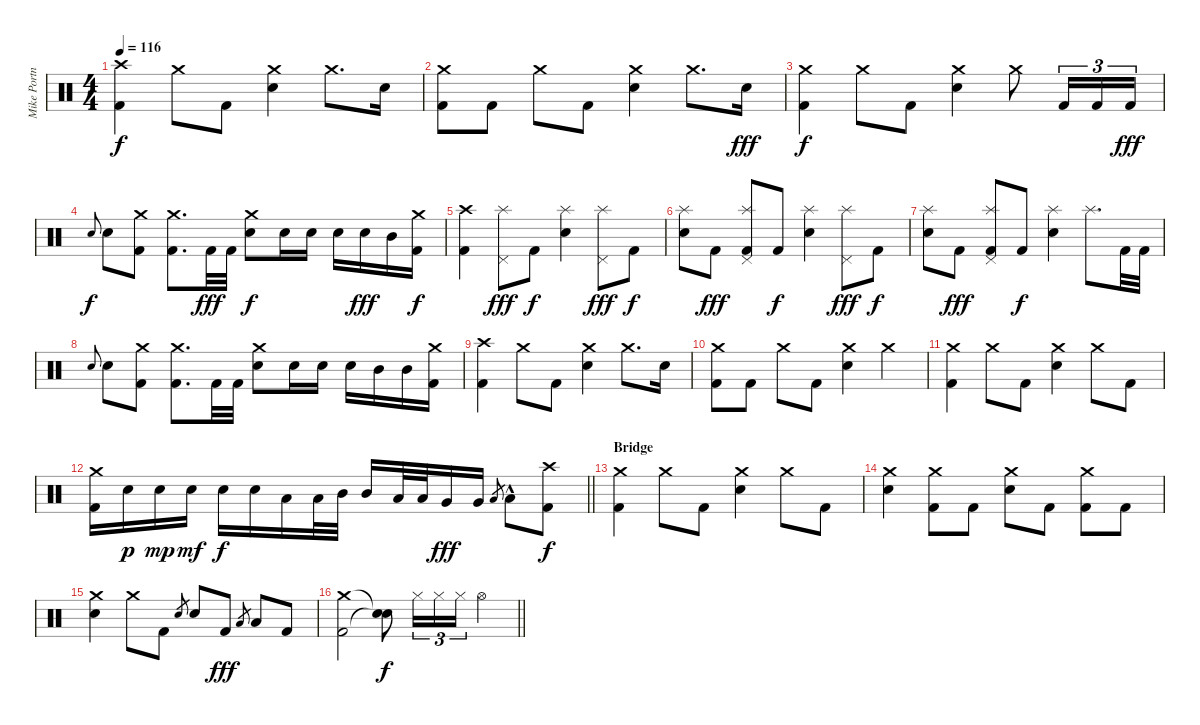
\track ("Mike Portnoy [Drums]" "Mike Portn") {instrument percussion}
\staff {score}
\articulation defaults
\ts (4 4)
\tempo 116
\clef neutral
\ks c
("Crash high (hit)" "Kick (hit) 2").4{dy f} "Crash medium (hit)".8 "Kick (hit) 2".8 ("Crash medium (hit)" "Electric Snare (hit)").4 "Crash medium (hit)".8{d} "Snare (hit) 2".16 |
("Crash medium (hit)" "Kick (hit) 2").8 "Kick (hit) 2".8 "Crash medium (hit)".8 "Kick (hit) 2".8 ("Crash medium (hit)" "Electric Snare (hit)").4 "Crash medium (hit)".8{d} "Electric Snare (hit)".16{dy fff} |
("Crash medium (hit)" "Kick (hit) 2").4{dy f} "Crash medium (hit)".8 "Kick (hit) 2".8 ("Crash medium (hit)" "Electric Snare (hit)").4 "Crash medium (hit)".8 "Kick (hit) 2".16{tu (3 2)} "Kick (hit) 2".16{tu (3 2)} "Kick (hit) 2".16{tu (3 2) dy fff} |
"Electric Snare (hit)".8{gr onbeat dy f} "Electric Snare (hit)".8 ("Crash medium (hit)" "Kick (hit) 2").8 ("Crash medium (hit)" "Kick (hit) 2").8{d} "Kick (hit) 2".32{dy fff} "Kick (hit) 2".32 ("Crash medium (hit)" "Electric Snare (hit)").8{dy f} "Electric Snare (hit)".16 "Electric Snare (hit)".16 "Electric Snare (hit)".16 "Electric Snare (hit)".16{dy fff} "Mid Tom (hit)".16 ("Crash medium (hit)" "Kick (hit) 2").16{dy f} |
("Crash high (hit)" "Kick (hit) 2").4 ("Splash (hit)" "Pedal Hi-Hat (hit)").8{dy fff} "Kick (hit) 2".8{dy f} ("Splash (hit)" "Electric Snare (hit)").4 ("Splash (hit)" "Pedal Hi-Hat (hit)").8{dy fff} "Kick (hit) 2".8{dy f} |
("Splash (hit)" "Electric Snare (hit)").8 "Kick (hit) 2".8{dy fff} ("Splash (hit)" "Pedal Hi-Hat (hit)" "Kick (hit) 2").8 "Kick (hit) 2".8{dy f} ("Splash (hit)" "Electric Snare (hit)").4 ("Splash (hit)" "Pedal Hi-Hat (hit)").8{dy fff} "Kick (hit) 2".8{dy f} |
("Splash (hit)" "Electric Snare (hit)").8 "Kick (hit) 2".8{dy fff} ("Splash (hit)" "Pedal Hi-Hat (hit)" "Kick (hit) 2").8 "Kick (hit) 2".8{dy f} ("Splash (hit)" "Electric Snare (hit)").4 "Splash (hit)".8{d} "Kick (hit) 2".32 "Kick (hit) 2".32 |
"Electric Snare (hit)".8{gr onbeat} "Electric Snare (hit)".8 ("Crash medium (hit)" "Kick (hit) 2").8 ("Crash medium (hit)" "Kick (hit) 2").8{d} "Kick (hit) 2".32 "Kick (hit) 2".32 ("Crash medium (hit)" "Electric Snare (hit)").8 "Electric Snare (hit)".16 "Electric Snare (hit)".16 "Electric Snare (hit)".16 "Mid Tom (hit)".16 "Mid Tom (hit)".16 ("Crash medium (hit)" "Kick (hit) 2").16 |
("Crash high (hit)" "Kick (hit) 2").4 "Crash medium (hit)".8 "Kick (hit) 2".8 ("Crash medium (hit)" "Electric Snare (hit)").4 "Crash medium (hit)".8{d} "Electric Snare (hit)".16 |
("Crash medium (hit)" "Kick (hit) 2").8 "Kick (hit) 2".8 "Crash medium (hit)".8 "Kick (hit) 2".8 ("Crash medium (hit)" "Electric Snare (hit)").4 "Crash medium (hit)".4 |
("Crash medium (hit)" "Kick (hit) 2").4 "Crash medium (hit)".8 "Kick (hit) 2".8 ("Crash medium (hit)" "Electric Snare (hit)").4 "Crash medium (hit)".8 "Kick (hit) 2".8 |
\barLineRight lightlight
("Crash medium (hit)" "Kick (hit) 2").16 "Electric Snare (hit)".16{dy p} "Electric Snare (hit)".16{dy mp} "Electric Snare (hit)".16{dy mf} "Electric Snare (hit)".16{dy f} "Electric Snare (hit)".16 "Low Floor Tom (hit)".16 "Low Floor Tom (hit)".32 "Mid Tom (hit)".32 "Mid Tom (hit)".16 "Low Tom (hit)".32 "Low Tom (hit)".32 "Very Low Tom (hit)".16{dy fff} "Very Low Tom (hit)".16 "Low Floor Tom (hit)".8{gr} "Low Floor Tom (hit)"{hac}.8 ("Crash high (hit)" "Kick (hit) 2").8{dy f} |
\section ("" "Bridge")
("Crash medium (hit)" "Kick (hit) 2").4 "Crash medium (hit)".8 "Kick (hit) 2".8 ("Crash medium (hit)" "Electric Snare (hit)").4 "Crash medium (hit)".8 "Kick (hit) 2".8 |
("Crash medium (hit)" "Electric Snare (hit)").4 ("Crash medium (hit)" "Kick (hit) 2").8 "Kick (hit) 2".8 ("Crash medium (hit)" "Electric Snare (hit)").8 "Kick (hit) 2".8 ("Crash medium (hit)" "Kick (hit) 2").8 "Kick (hit) 2".8 |
("Crash medium (hit)" "Electric Snare (hit)").4 "Crash medium (hit)".8 "Kick (hit) 2".8 "Electric Snare (hit)".8{gr} "Electric Snare (hit)".8 "Kick (hit) 2".8{dy fff} "Low Tom (hit)".8{gr} "Low Tom (hit)".8 "Kick (hit) 2".8 |
\barLineRight lightlight
("Crash medium (hit)" "Kick (hit) 2").2 ("Snare (hit)"{t} "Snare (hit)"{t}).8{dy f} "Hi-Hat (closed)".16{tu (3 2)} "Hi-Hat (closed)".16{tu (3 2)} "Hi-Hat (closed)".16{tu (3 2)} "Hi-Hat (open)".4
